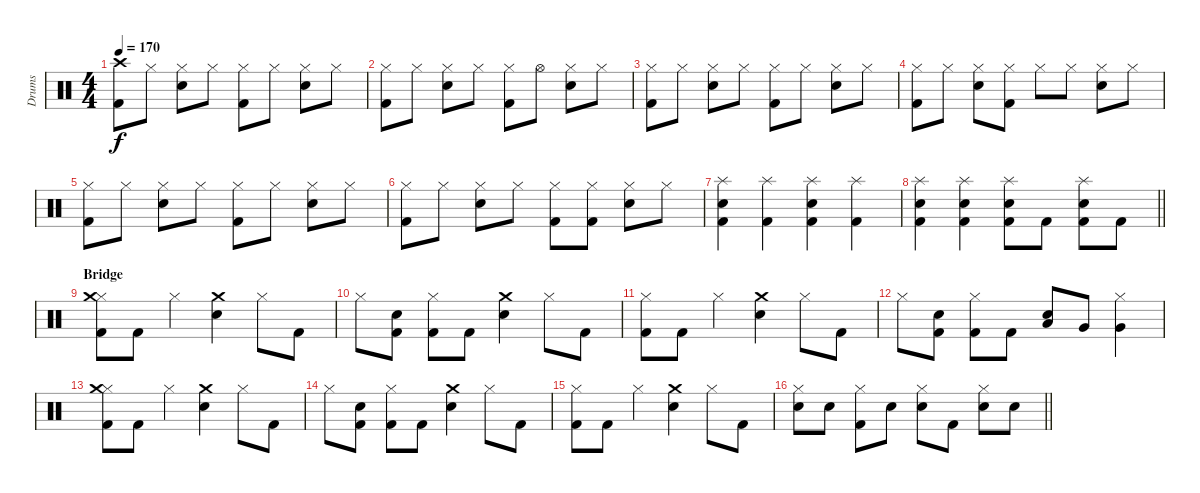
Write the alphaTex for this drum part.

\track ("Drums" "Drums") {instrument percussion}
\staff {score}
\articulation defaults
\ts (4 4)
\tempo 170
\clef neutral
\ks c
("Crash high (hit)" "Kick (hit) 2").8{dy f} "Hi-Hat (closed)".8 ("Hi-Hat (closed)" "Snare (hit) 2").8 "Hi-Hat (closed)".8 ("Hi-Hat (closed)" "Kick (hit) 2").8 "Hi-Hat (closed)".8 ("Hi-Hat (closed)" "Snare (hit) 2").8 "Hi-Hat (closed)".8 |
("Hi-Hat (closed)" "Kick (hit) 2").8 "Hi-Hat (closed)".8 ("Hi-Hat (closed)" "Snare (hit) 2").8 "Hi-Hat (closed)".8 ("Hi-Hat (closed)" "Kick (hit) 2").8 "Hi-Hat (open)".8 ("Hi-Hat (closed)" "Snare (hit) 2").8 "Hi-Hat (closed)".8 |
("Hi-Hat (closed)" "Kick (hit) 2").8 "Hi-Hat (closed)".8 ("Hi-Hat (closed)" "Snare (hit) 2").8 "Hi-Hat (closed)".8 ("Hi-Hat (closed)" "Kick (hit) 2").8 "Hi-Hat (closed)".8 ("Hi-Hat (closed)" "Snare (hit) 2").8 "Hi-Hat (closed)".8 |
("Hi-Hat (closed)" "Kick (hit) 2").8 "Hi-Hat (closed)".8 ("Hi-Hat (closed)" "Snare (hit) 2").8 ("Hi-Hat (closed)" "Kick (hit) 2").8 "Hi-Hat (closed)".8 "Hi-Hat (closed)".8 ("Hi-Hat (closed)" "Snare (hit) 2").8 "Hi-Hat (closed)".8 |
("Hi-Hat (closed)" "Kick (hit) 2").8 "Hi-Hat (closed)".8 ("Hi-Hat (closed)" "Snare (hit) 2").8 "Hi-Hat (closed)".8 ("Hi-Hat (closed)" "Kick (hit) 2").8 "Hi-Hat (closed)".8 ("Hi-Hat (closed)" "Snare (hit) 2").8 "Hi-Hat (closed)".8 |
("Hi-Hat (closed)" "Kick (hit) 2").8 "Hi-Hat (closed)".8 ("Hi-Hat (closed)" "Snare (hit) 2").8 "Hi-Hat (closed)".8 ("Hi-Hat (closed)" "Kick (hit) 2").8 ("Hi-Hat (closed)" "Kick (hit) 2").8 ("Hi-Hat (closed)" "Snare (hit) 2").8 "Hi-Hat (closed)".8 |
("Splash (hit)" "Snare (hit) 2" "Kick (hit) 2").4 ("Splash (hit)" "Kick (hit) 2").4 ("Splash (hit)" "Snare (hit) 2" "Kick (hit) 2").4 ("Splash (hit)" "Kick (hit) 2").4 |
\barLineRight lightlight
("Splash (hit)" "Snare (hit) 2" "Kick (hit) 2").4 ("Splash (hit)" "Snare (hit) 2" "Kick (hit) 2").4 ("Splash (hit)" "Snare (hit) 2" "Kick (hit) 2").8 "Kick (hit) 2".8 ("Splash (hit)" "Snare (hit) 2" "Kick (hit) 2").8 "Kick (hit) 2".8 |
\section ("" "Bridge")
("Hi-Hat (closed)" "Crash medium (hit)" "Kick (hit) 2").8 "Kick (hit) 2".8 "Hi-Hat (closed)".4 ("Crash medium (hit)" "Snare (hit) 2").4 "Hi-Hat (closed)".8 "Kick (hit) 2".8 |
"Hi-Hat (closed)".8 ("Snare (hit) 2" "Kick (hit) 2").8 ("Hi-Hat (closed)" "Kick (hit) 2").8 "Kick (hit) 2".8 ("Crash medium (hit)" "Snare (hit) 2").4 "Hi-Hat (closed)".8 "Kick (hit) 2".8 |
("Hi-Hat (closed)" "Kick (hit) 2").8 "Kick (hit) 2".8 "Hi-Hat (closed)".4 ("Crash medium (hit)" "Snare (hit) 2").4 "Hi-Hat (closed)".8 "Kick (hit) 2".8 |
"Hi-Hat (closed)".8 ("Snare (hit) 2" "Kick (hit) 2").8 ("Hi-Hat (closed)" "Kick (hit) 2").8 "Kick (hit) 2".8 ("Snare (hit) 2" "Low Tom (hit)").8 "Very Low Tom (hit)".8 ("Hi-Hat (closed)" "Very Low Tom (hit)").4 |
("Hi-Hat (closed)" "Crash medium (hit)" "Kick (hit) 2").8 "Kick (hit) 2".8 "Hi-Hat (closed)".4 ("Crash medium (hit)" "Snare (hit) 2").4 "Hi-Hat (closed)".8 "Kick (hit) 2".8 |
"Hi-Hat (closed)".8 ("Snare (hit) 2" "Kick (hit) 2").8 ("Hi-Hat (closed)" "Kick (hit) 2").8 "Kick (hit) 2".8 ("Crash medium (hit)" "Snare (hit) 2").4 "Hi-Hat (closed)".8 "Kick (hit) 2".8 |
("Hi-Hat (closed)" "Kick (hit) 2").8 "Kick (hit) 2".8 "Hi-Hat (closed)".4 ("Crash medium (hit)" "Snare (hit) 2").4 "Hi-Hat (closed)".8 "Kick (hit) 2".8 |
\barLineRight lightlight
("Hi-Hat (closed)" "Snare (hit) 2").8 "Snare (hit) 2".8 ("Hi-Hat (closed)" "Kick (hit) 2").8 "Snare (hit) 2".8 ("Hi-Hat (closed)" "Snare (hit) 2").8 "Kick (hit) 2".8 ("Hi-Hat (closed)" "Snare (hit) 2").8 "Snare (hit) 2".8
